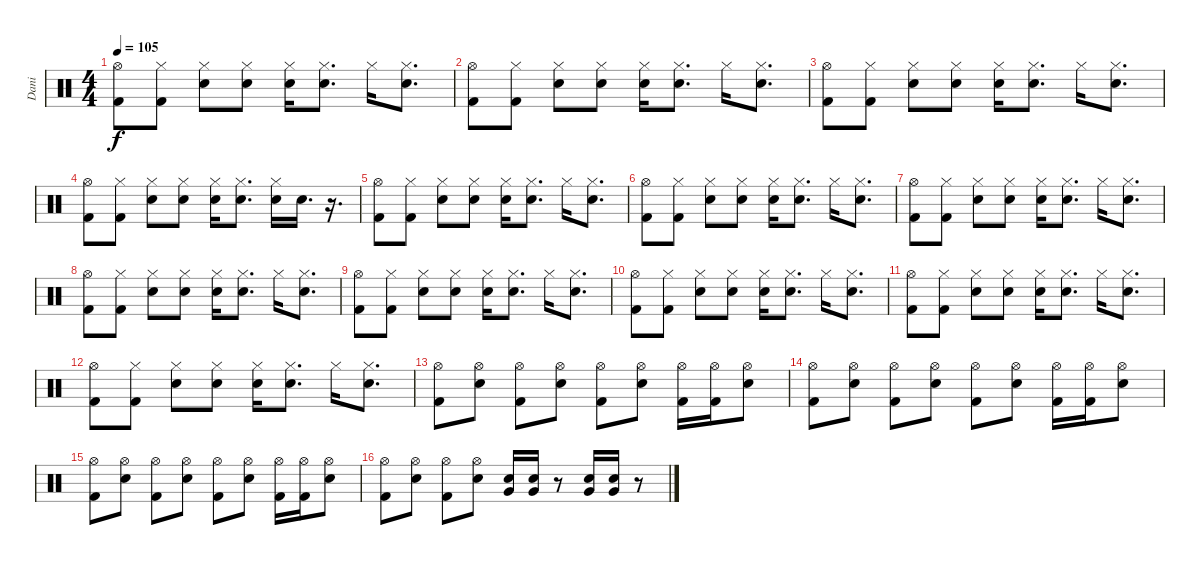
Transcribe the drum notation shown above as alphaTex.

\track ("Dani" "Dani") {instrument percussion}
\staff {score}
\articulation defaults
\ts (4 4)
\tempo 105
\clef neutral
\ks c
("Kick (hit) 2" "Hi-Hat (open)").8{dy f} ("Kick (hit) 2" "Hi-Hat (closed)").8 ("Snare (hit) 2" "Hi-Hat (closed)").8 ("Snare (hit) 2" "Hi-Hat (closed)").8 ("Snare (hit) 2" "Hi-Hat (closed)").16 ("Snare (hit) 2" "Hi-Hat (closed)").8{d} "Hi-Hat (closed)".16 ("Snare (hit) 2" "Hi-Hat (closed)").8{d} |
("Kick (hit) 2" "Hi-Hat (open)").8 ("Kick (hit) 2" "Hi-Hat (closed)").8 ("Snare (hit) 2" "Hi-Hat (closed)").8 ("Snare (hit) 2" "Hi-Hat (closed)").8 ("Snare (hit) 2" "Hi-Hat (closed)").16 ("Snare (hit) 2" "Hi-Hat (closed)").8{d} "Hi-Hat (closed)".16 ("Snare (hit) 2" "Hi-Hat (closed)").8{d} |
("Kick (hit) 2" "Hi-Hat (open)").8 ("Kick (hit) 2" "Hi-Hat (closed)").8 ("Snare (hit) 2" "Hi-Hat (closed)").8 ("Snare (hit) 2" "Hi-Hat (closed)").8 ("Snare (hit) 2" "Hi-Hat (closed)").16 ("Snare (hit) 2" "Hi-Hat (closed)").8{d} "Hi-Hat (closed)".16 ("Snare (hit) 2" "Hi-Hat (closed)").8{d} |
("Kick (hit) 2" "Hi-Hat (open)").8 ("Kick (hit) 2" "Hi-Hat (closed)").8 ("Snare (hit) 2" "Hi-Hat (closed)").8 ("Snare (hit) 2" "Hi-Hat (closed)").8 ("Snare (hit) 2" "Hi-Hat (closed)").16 ("Snare (hit) 2" "Hi-Hat (closed)").8{d} ("Snare (hit) 2" "Hi-Hat (closed)").16 "Snare (hit) 2".16{d} r.16{d} |
("Kick (hit) 2" "Hi-Hat (open)").8 ("Kick (hit) 2" "Hi-Hat (closed)").8 ("Snare (hit) 2" "Hi-Hat (closed)").8 ("Snare (hit) 2" "Hi-Hat (closed)").8 ("Snare (hit) 2" "Hi-Hat (closed)").16 ("Snare (hit) 2" "Hi-Hat (closed)").8{d} "Hi-Hat (closed)".16 ("Snare (hit) 2" "Hi-Hat (closed)").8{d} |
("Kick (hit) 2" "Hi-Hat (open)").8 ("Kick (hit) 2" "Hi-Hat (closed)").8 ("Snare (hit) 2" "Hi-Hat (closed)").8 ("Snare (hit) 2" "Hi-Hat (closed)").8 ("Snare (hit) 2" "Hi-Hat (closed)").16 ("Snare (hit) 2" "Hi-Hat (closed)").8{d} "Hi-Hat (closed)".16 ("Snare (hit) 2" "Hi-Hat (closed)").8{d} |
("Kick (hit) 2" "Hi-Hat (open)").8 ("Kick (hit) 2" "Hi-Hat (closed)").8 ("Snare (hit) 2" "Hi-Hat (closed)").8 ("Snare (hit) 2" "Hi-Hat (closed)").8 ("Snare (hit) 2" "Hi-Hat (closed)").16 ("Snare (hit) 2" "Hi-Hat (closed)").8{d} "Hi-Hat (closed)".16 ("Snare (hit) 2" "Hi-Hat (closed)").8{d} |
("Kick (hit) 2" "Hi-Hat (open)").8 ("Kick (hit) 2" "Hi-Hat (closed)").8 ("Snare (hit) 2" "Hi-Hat (closed)").8 ("Snare (hit) 2" "Hi-Hat (closed)").8 ("Snare (hit) 2" "Hi-Hat (closed)").16 ("Snare (hit) 2" "Hi-Hat (closed)").8{d} "Hi-Hat (closed)".16 ("Snare (hit) 2" "Hi-Hat (closed)").8{d} |
("Kick (hit) 2" "Hi-Hat (open)").8 ("Kick (hit) 2" "Hi-Hat (closed)").8 ("Snare (hit) 2" "Hi-Hat (closed)").8 ("Snare (hit) 2" "Hi-Hat (closed)").8 ("Snare (hit) 2" "Hi-Hat (closed)").16 ("Snare (hit) 2" "Hi-Hat (closed)").8{d} "Hi-Hat (closed)".16 ("Snare (hit) 2" "Hi-Hat (closed)").8{d} |
("Kick (hit) 2" "Hi-Hat (open)").8 ("Kick (hit) 2" "Hi-Hat (closed)").8 ("Snare (hit) 2" "Hi-Hat (closed)").8 ("Snare (hit) 2" "Hi-Hat (closed)").8 ("Snare (hit) 2" "Hi-Hat (closed)").16 ("Snare (hit) 2" "Hi-Hat (closed)").8{d} "Hi-Hat (closed)".16 ("Snare (hit) 2" "Hi-Hat (closed)").8{d} |
("Kick (hit) 2" "Hi-Hat (open)").8 ("Kick (hit) 2" "Hi-Hat (closed)").8 ("Snare (hit) 2" "Hi-Hat (closed)").8 ("Snare (hit) 2" "Hi-Hat (closed)").8 ("Snare (hit) 2" "Hi-Hat (closed)").16 ("Snare (hit) 2" "Hi-Hat (closed)").8{d} "Hi-Hat (closed)".16 ("Snare (hit) 2" "Hi-Hat (closed)").8{d} |
("Kick (hit) 2" "Hi-Hat (open)").8 ("Kick (hit) 2" "Hi-Hat (closed)").8 ("Snare (hit) 2" "Hi-Hat (closed)").8 ("Snare (hit) 2" "Hi-Hat (closed)").8 ("Snare (hit) 2" "Hi-Hat (closed)").16 ("Snare (hit) 2" "Hi-Hat (closed)").8{d} "Hi-Hat (closed)".16 ("Snare (hit) 2" "Hi-Hat (closed)").8{d} |
("Kick (hit) 2" "Hi-Hat (open)").8 ("Snare (hit) 2" "Hi-Hat (open)").8 ("Kick (hit) 2" "Hi-Hat (open)").8 ("Snare (hit) 2" "Hi-Hat (open)").8 ("Kick (hit) 2" "Hi-Hat (open)").8 ("Snare (hit) 2" "Hi-Hat (open)").8 ("Kick (hit) 2" "Hi-Hat (open)").16 ("Kick (hit) 2" "Hi-Hat (open)").16 ("Snare (hit) 2" "Hi-Hat (open)").8 |
("Kick (hit) 2" "Hi-Hat (open)").8 ("Snare (hit) 2" "Hi-Hat (open)").8 ("Kick (hit) 2" "Hi-Hat (open)").8 ("Snare (hit) 2" "Hi-Hat (open)").8 ("Kick (hit) 2" "Hi-Hat (open)").8 ("Snare (hit) 2" "Hi-Hat (open)").8 ("Kick (hit) 2" "Hi-Hat (open)").16 ("Kick (hit) 2" "Hi-Hat (open)").16 ("Snare (hit) 2" "Hi-Hat (open)").8 |
("Kick (hit) 2" "Hi-Hat (open)").8 ("Snare (hit) 2" "Hi-Hat (open)").8 ("Kick (hit) 2" "Hi-Hat (open)").8 ("Snare (hit) 2" "Hi-Hat (open)").8 ("Kick (hit) 2" "Hi-Hat (open)").8 ("Snare (hit) 2" "Hi-Hat (open)").8 ("Kick (hit) 2" "Hi-Hat (open)").16 ("Kick (hit) 2" "Hi-Hat (open)").16 ("Snare (hit) 2" "Hi-Hat (open)").8 |
("Kick (hit) 2" "Hi-Hat (open)").8 ("Snare (hit) 2" "Hi-Hat (open)").8 ("Kick (hit) 2" "Hi-Hat (open)").8 ("Snare (hit) 2" "Hi-Hat (open)").8 ("Snare (hit) 2" "Very Low Tom (hit)").16{volume 16} ("Snare (hit) 2" "Very Low Tom (hit)").16 r.8 ("Snare (hit) 2" "Very Low Tom (hit)").16 ("Snare (hit) 2" "Very Low Tom (hit)").16 r.8
